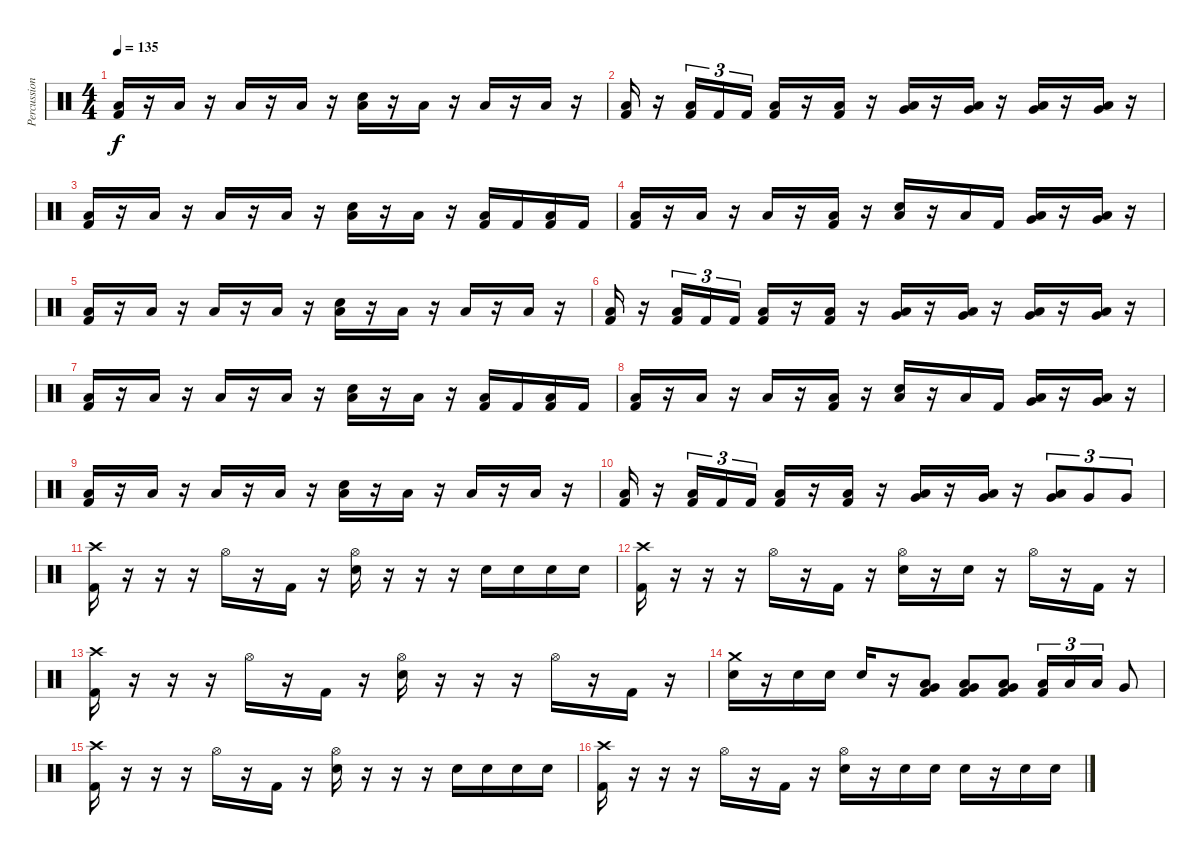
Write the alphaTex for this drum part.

\track ("Percussion" "Percussion") {instrument percussion}
\staff {score}
\articulation defaults
\ts (4 4)
\tempo 135
\clef neutral
\ks c
("Low Floor Tom (hit)" "Kick (hit) 2").16{dy f} r.16 "Low Floor Tom (hit)".16 r.16 "Low Floor Tom (hit)".16 r.16 "Low Floor Tom (hit)".16 r.16 ("Snare (hit) 2" "Low Floor Tom (hit)").16 r.16 "Low Floor Tom (hit)".16 r.16 "Low Floor Tom (hit)".16 r.16 "Low Floor Tom (hit)".16 r.16 |
("Low Floor Tom (hit)" "Kick (hit) 2").16 r.16 ("Low Floor Tom (hit)" "Kick (hit) 2").16{tu (3 2)} "Kick (hit) 2".16{tu (3 2)} "Kick (hit) 2".16{tu (3 2)} ("Low Floor Tom (hit)" "Kick (hit) 2").16 r.16 ("Low Floor Tom (hit)" "Kick (hit) 2").16 r.16 ("Very Low Tom (hit)" "Low Floor Tom (hit)").16 r.16 ("Very Low Tom (hit)" "Low Floor Tom (hit)").16 r.16 ("Low Tom (hit)" "Very Low Tom (hit)").16 r.16 ("Low Tom (hit)" "Very Low Tom (hit)").16 r.16 |
("Low Floor Tom (hit)" "Kick (hit) 2").16 r.16 "Low Floor Tom (hit)".16 r.16 "Low Floor Tom (hit)".16 r.16 "Low Floor Tom (hit)".16 r.16 ("Snare (hit) 2" "Low Floor Tom (hit)").16 r.16 "Low Floor Tom (hit)".16 r.16 ("Low Floor Tom (hit)" "Kick (hit) 2").16 "Kick (hit) 2".16 ("Low Floor Tom (hit)" "Kick (hit) 2").16 "Kick (hit) 2".16 |
("Low Floor Tom (hit)" "Kick (hit) 2").16 r.16 "Low Floor Tom (hit)".16 r.16 "Low Floor Tom (hit)".16 r.16 ("Low Floor Tom (hit)" "Kick (hit) 2").16 r.16 ("Snare (hit) 2" "Low Floor Tom (hit)").16 r.16 "Low Floor Tom (hit)".16 "Kick (hit) 2".16 ("Low Tom (hit)" "Very Low Tom (hit)").16 r.16 ("Very Low Tom (hit)" "Low Floor Tom (hit)").16 r.16 |
("Low Floor Tom (hit)" "Kick (hit) 2").16 r.16 "Low Floor Tom (hit)".16 r.16 "Low Floor Tom (hit)".16 r.16 "Low Floor Tom (hit)".16 r.16 ("Snare (hit) 2" "Low Floor Tom (hit)").16 r.16 "Low Floor Tom (hit)".16 r.16 "Low Floor Tom (hit)".16 r.16 "Low Floor Tom (hit)".16 r.16 |
("Low Floor Tom (hit)" "Kick (hit) 2").16 r.16 ("Low Floor Tom (hit)" "Kick (hit) 2").16{tu (3 2)} "Kick (hit) 2".16{tu (3 2)} "Kick (hit) 2".16{tu (3 2)} ("Low Floor Tom (hit)" "Kick (hit) 2").16 r.16 ("Low Floor Tom (hit)" "Kick (hit) 2").16 r.16 ("Very Low Tom (hit)" "Low Floor Tom (hit)").16 r.16 ("Very Low Tom (hit)" "Low Floor Tom (hit)").16 r.16 ("Low Tom (hit)" "Very Low Tom (hit)").16 r.16 ("Low Tom (hit)" "Very Low Tom (hit)").16 r.16 |
("Low Floor Tom (hit)" "Kick (hit) 2").16 r.16 "Low Floor Tom (hit)".16 r.16 "Low Floor Tom (hit)".16 r.16 "Low Floor Tom (hit)".16 r.16 ("Snare (hit) 2" "Low Floor Tom (hit)").16 r.16 "Low Floor Tom (hit)".16 r.16 ("Low Floor Tom (hit)" "Kick (hit) 2").16 "Kick (hit) 2".16 ("Low Floor Tom (hit)" "Kick (hit) 2").16 "Kick (hit) 2".16 |
("Low Floor Tom (hit)" "Kick (hit) 2").16 r.16 "Low Floor Tom (hit)".16 r.16 "Low Floor Tom (hit)".16 r.16 ("Low Floor Tom (hit)" "Kick (hit) 2").16 r.16 ("Snare (hit) 2" "Low Floor Tom (hit)").16 r.16 "Low Floor Tom (hit)".16 "Kick (hit) 2".16 ("Low Tom (hit)" "Very Low Tom (hit)").16 r.16 ("Very Low Tom (hit)" "Low Floor Tom (hit)").16 r.16 |
("Low Floor Tom (hit)" "Kick (hit) 2").16 r.16 "Low Floor Tom (hit)".16 r.16 "Low Floor Tom (hit)".16 r.16 "Low Floor Tom (hit)".16 r.16 ("Snare (hit) 2" "Low Floor Tom (hit)").16 r.16 "Low Floor Tom (hit)".16 r.16 "Low Floor Tom (hit)".16 r.16 "Low Floor Tom (hit)".16 r.16 |
("Low Floor Tom (hit)" "Kick (hit) 2").16 r.16 ("Low Floor Tom (hit)" "Kick (hit) 2").16{tu (3 2)} "Kick (hit) 2".16{tu (3 2)} "Kick (hit) 2".16{tu (3 2)} ("Low Floor Tom (hit)" "Kick (hit) 2").16 r.16 ("Low Floor Tom (hit)" "Kick (hit) 2").16 r.16 ("Very Low Tom (hit)" "Low Floor Tom (hit)").16 r.16 ("Very Low Tom (hit)" "Low Floor Tom (hit)").16 r.16 ("Low Tom (hit)" "Very Low Tom (hit)").8{tu (3 2)} "Very Low Tom (hit)".8{tu (3 2)} "Very Low Tom (hit)".8{tu (3 2)} |
("Crash high (hit)" "Kick (hit) 2").16 r.16 r.16 r.16 "Hi-Hat (open)".16 r.16 "Kick (hit) 2".16 r.16 ("Hi-Hat (open)" "Snare (hit) 2").16 r.16 r.16 r.16 "Snare (hit) 2".16 "Snare (hit) 2".16 "Snare (hit) 2".16 "Snare (hit) 2".16 |
("Crash high (hit)" "Kick (hit) 2").16 r.16 r.16 r.16 "Hi-Hat (open)".16 r.16 "Kick (hit) 2".16 r.16 ("Hi-Hat (open)" "Snare (hit) 2").16 r.16 "Snare (hit) 2".16 r.16 "Hi-Hat (open)".16 r.16 "Kick (hit) 2".16 r.16 |
("Crash high (hit)" "Kick (hit) 2").16 r.16 r.16 r.16 "Hi-Hat (open)".16 r.16 "Kick (hit) 2".16 r.16 ("Hi-Hat (open)" "Snare (hit) 2").16 r.16 r.16 r.16 "Hi-Hat (open)".16 r.16 "Kick (hit) 2".16 r.16 |
("Crash medium (hit)" "Snare (hit) 2").16 r.16 "Snare (hit) 2".16 "Snare (hit) 2".16 "Snare (hit) 2".16 r.16 ("Low Tom (hit)" "Very Low Tom (hit)" "Kick (hit) 2").8 ("Low Tom (hit)" "Very Low Tom (hit)" "Kick (hit) 2").8 ("Low Tom (hit)" "Very Low Tom (hit)" "Kick (hit) 2").8 ("Low Tom (hit)" "Kick (hit) 2").16{tu (3 2)} "Low Tom (hit)".16{tu (3 2)} "Low Tom (hit)".16{tu (3 2)} "Very Low Tom (hit)".8 |
("Crash high (hit)" "Kick (hit) 2").16 r.16 r.16 r.16 "Hi-Hat (open)".16 r.16 "Kick (hit) 2".16 r.16 ("Hi-Hat (open)" "Snare (hit) 2").16 r.16 r.16 r.16 "Snare (hit) 2".16 "Snare (hit) 2".16 "Snare (hit) 2".16 "Snare (hit) 2".16 |
("Crash high (hit)" "Kick (hit) 2").16 r.16 r.16 r.16 "Hi-Hat (open)".16 r.16 "Kick (hit) 2".16 r.16 ("Hi-Hat (open)" "Snare (hit) 2").16 r.16 "Snare (hit) 2".16 "Snare (hit) 2".16 "Snare (hit) 2".16 r.16 "Snare (hit) 2".16 "Snare (hit) 2".16
